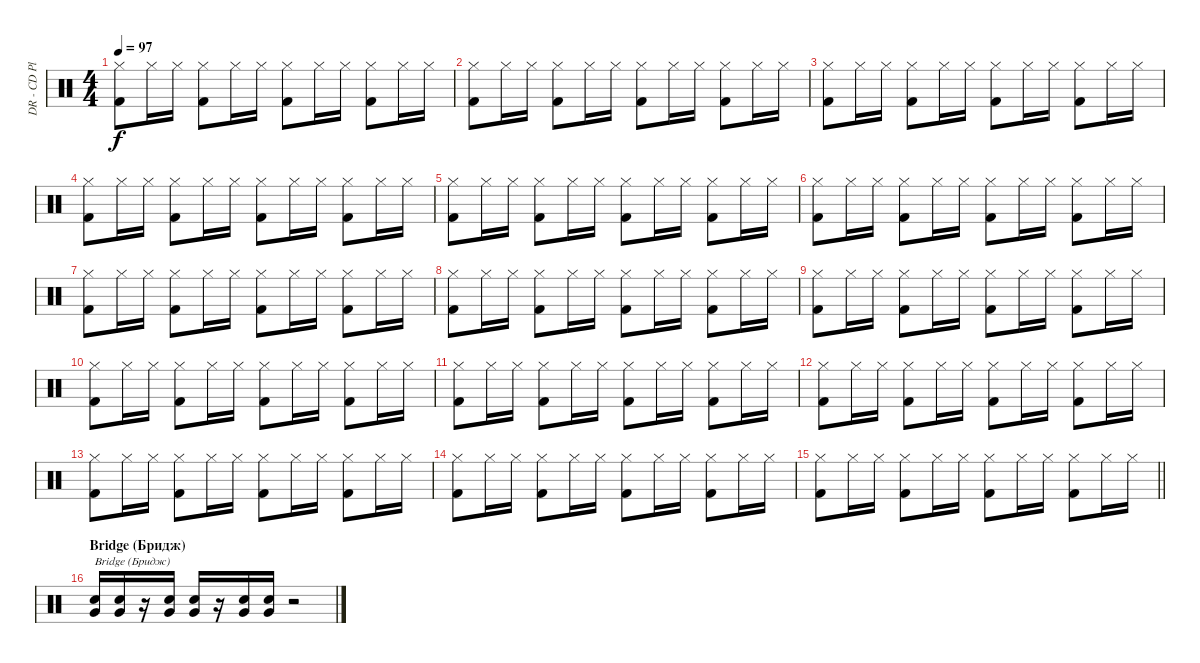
\track ("DR - CD Player" "DR - CD Pl") {instrument percussion}
\staff {score}
\articulation defaults
\ts (4 4)
\tempo 97
\clef neutral
\ks c
("Kick (hit) 2" "Hi-Hat (closed)").8{dy f} "Hi-Hat (closed)".16 "Hi-Hat (closed)".16 ("Kick (hit) 2" "Hi-Hat (closed)").8 "Hi-Hat (closed)".16 "Hi-Hat (closed)".16 ("Kick (hit) 2" "Hi-Hat (closed)").8 "Hi-Hat (closed)".16 "Hi-Hat (closed)".16 ("Kick (hit) 2" "Hi-Hat (closed)").8 "Hi-Hat (closed)".16 "Hi-Hat (closed)".16 |
("Kick (hit) 2" "Hi-Hat (closed)").8 "Hi-Hat (closed)".16 "Hi-Hat (closed)".16 ("Kick (hit) 2" "Hi-Hat (closed)").8 "Hi-Hat (closed)".16 "Hi-Hat (closed)".16 ("Kick (hit) 2" "Hi-Hat (closed)").8 "Hi-Hat (closed)".16 "Hi-Hat (closed)".16 ("Kick (hit) 2" "Hi-Hat (closed)").8 "Hi-Hat (closed)".16 "Hi-Hat (closed)".16 |
("Kick (hit) 2" "Hi-Hat (closed)").8 "Hi-Hat (closed)".16 "Hi-Hat (closed)".16 ("Kick (hit) 2" "Hi-Hat (closed)").8 "Hi-Hat (closed)".16 "Hi-Hat (closed)".16 ("Kick (hit) 2" "Hi-Hat (closed)").8 "Hi-Hat (closed)".16 "Hi-Hat (closed)".16 ("Kick (hit) 2" "Hi-Hat (closed)").8 "Hi-Hat (closed)".16 "Hi-Hat (closed)".16 |
("Kick (hit) 2" "Hi-Hat (closed)").8 "Hi-Hat (closed)".16 "Hi-Hat (closed)".16 ("Kick (hit) 2" "Hi-Hat (closed)").8 "Hi-Hat (closed)".16 "Hi-Hat (closed)".16 ("Kick (hit) 2" "Hi-Hat (closed)").8 "Hi-Hat (closed)".16 "Hi-Hat (closed)".16 ("Kick (hit) 2" "Hi-Hat (closed)").8 "Hi-Hat (closed)".16 "Hi-Hat (closed)".16 |
("Kick (hit) 2" "Hi-Hat (closed)").8 "Hi-Hat (closed)".16 "Hi-Hat (closed)".16 ("Kick (hit) 2" "Hi-Hat (closed)").8 "Hi-Hat (closed)".16 "Hi-Hat (closed)".16 ("Kick (hit) 2" "Hi-Hat (closed)").8 "Hi-Hat (closed)".16 "Hi-Hat (closed)".16 ("Kick (hit) 2" "Hi-Hat (closed)").8 "Hi-Hat (closed)".16 "Hi-Hat (closed)".16 |
("Kick (hit) 2" "Hi-Hat (closed)").8 "Hi-Hat (closed)".16 "Hi-Hat (closed)".16 ("Kick (hit) 2" "Hi-Hat (closed)").8 "Hi-Hat (closed)".16 "Hi-Hat (closed)".16 ("Kick (hit) 2" "Hi-Hat (closed)").8 "Hi-Hat (closed)".16 "Hi-Hat (closed)".16 ("Kick (hit) 2" "Hi-Hat (closed)").8 "Hi-Hat (closed)".16 "Hi-Hat (closed)".16 |
("Kick (hit) 2" "Hi-Hat (closed)").8 "Hi-Hat (closed)".16 "Hi-Hat (closed)".16 ("Kick (hit) 2" "Hi-Hat (closed)").8 "Hi-Hat (closed)".16 "Hi-Hat (closed)".16 ("Kick (hit) 2" "Hi-Hat (closed)").8 "Hi-Hat (closed)".16 "Hi-Hat (closed)".16 ("Kick (hit) 2" "Hi-Hat (closed)").8 "Hi-Hat (closed)".16 "Hi-Hat (closed)".16 |
("Kick (hit) 2" "Hi-Hat (closed)").8 "Hi-Hat (closed)".16 "Hi-Hat (closed)".16 ("Kick (hit) 2" "Hi-Hat (closed)").8 "Hi-Hat (closed)".16 "Hi-Hat (closed)".16 ("Kick (hit) 2" "Hi-Hat (closed)").8 "Hi-Hat (closed)".16 "Hi-Hat (closed)".16 ("Kick (hit) 2" "Hi-Hat (closed)").8 "Hi-Hat (closed)".16 "Hi-Hat (closed)".16 |
("Kick (hit) 2" "Hi-Hat (closed)").8 "Hi-Hat (closed)".16 "Hi-Hat (closed)".16 ("Kick (hit) 2" "Hi-Hat (closed)").8 "Hi-Hat (closed)".16 "Hi-Hat (closed)".16 ("Kick (hit) 2" "Hi-Hat (closed)").8 "Hi-Hat (closed)".16 "Hi-Hat (closed)".16 ("Kick (hit) 2" "Hi-Hat (closed)").8 "Hi-Hat (closed)".16 "Hi-Hat (closed)".16 |
("Kick (hit) 2" "Hi-Hat (closed)").8 "Hi-Hat (closed)".16 "Hi-Hat (closed)".16 ("Kick (hit) 2" "Hi-Hat (closed)").8 "Hi-Hat (closed)".16 "Hi-Hat (closed)".16 ("Kick (hit) 2" "Hi-Hat (closed)").8 "Hi-Hat (closed)".16 "Hi-Hat (closed)".16 ("Kick (hit) 2" "Hi-Hat (closed)").8 "Hi-Hat (closed)".16 "Hi-Hat (closed)".16 |
("Kick (hit) 2" "Hi-Hat (closed)").8 "Hi-Hat (closed)".16 "Hi-Hat (closed)".16 ("Kick (hit) 2" "Hi-Hat (closed)").8 "Hi-Hat (closed)".16 "Hi-Hat (closed)".16 ("Kick (hit) 2" "Hi-Hat (closed)").8 "Hi-Hat (closed)".16 "Hi-Hat (closed)".16 ("Kick (hit) 2" "Hi-Hat (closed)").8 "Hi-Hat (closed)".16 "Hi-Hat (closed)".16 |
("Kick (hit) 2" "Hi-Hat (closed)").8 "Hi-Hat (closed)".16 "Hi-Hat (closed)".16 ("Kick (hit) 2" "Hi-Hat (closed)").8 "Hi-Hat (closed)".16 "Hi-Hat (closed)".16 ("Kick (hit) 2" "Hi-Hat (closed)").8 "Hi-Hat (closed)".16 "Hi-Hat (closed)".16 ("Kick (hit) 2" "Hi-Hat (closed)").8 "Hi-Hat (closed)".16 "Hi-Hat (closed)".16 |
("Kick (hit) 2" "Hi-Hat (closed)").8 "Hi-Hat (closed)".16 "Hi-Hat (closed)".16 ("Kick (hit) 2" "Hi-Hat (closed)").8 "Hi-Hat (closed)".16 "Hi-Hat (closed)".16 ("Kick (hit) 2" "Hi-Hat (closed)").8 "Hi-Hat (closed)".16 "Hi-Hat (closed)".16 ("Kick (hit) 2" "Hi-Hat (closed)").8 "Hi-Hat (closed)".16 "Hi-Hat (closed)".16 |
("Kick (hit) 2" "Hi-Hat (closed)").8 "Hi-Hat (closed)".16 "Hi-Hat (closed)".16 ("Kick (hit) 2" "Hi-Hat (closed)").8 "Hi-Hat (closed)".16 "Hi-Hat (closed)".16 ("Kick (hit) 2" "Hi-Hat (closed)").8 "Hi-Hat (closed)".16 "Hi-Hat (closed)".16 ("Kick (hit) 2" "Hi-Hat (closed)").8 "Hi-Hat (closed)".16 "Hi-Hat (closed)".16 |
\barLineRight lightlight
("Kick (hit) 2" "Hi-Hat (closed)").8 "Hi-Hat (closed)".16 "Hi-Hat (closed)".16 ("Kick (hit) 2" "Hi-Hat (closed)").8 "Hi-Hat (closed)".16 "Hi-Hat (closed)".16 ("Kick (hit) 2" "Hi-Hat (closed)").8 "Hi-Hat (closed)".16 "Hi-Hat (closed)".16 ("Kick (hit) 2" "Hi-Hat (closed)").8 "Hi-Hat (closed)".16 "Hi-Hat (closed)".16 |
\section ("" "Bridge (Бридж)")
("Electric Snare (hit)" "Very Low Tom (hit)").16{txt "Bridge (Бридж)"} ("Electric Snare (hit)" "Very Low Tom (hit)").16 r.16 ("Electric Snare (hit)" "Very Low Tom (hit)").16 ("Electric Snare (hit)" "Very Low Tom (hit)").16 r.16 ("Electric Snare (hit)" "Very Low Tom (hit)").16 ("Electric Snare (hit)" "Very Low Tom (hit)").16 r.2
